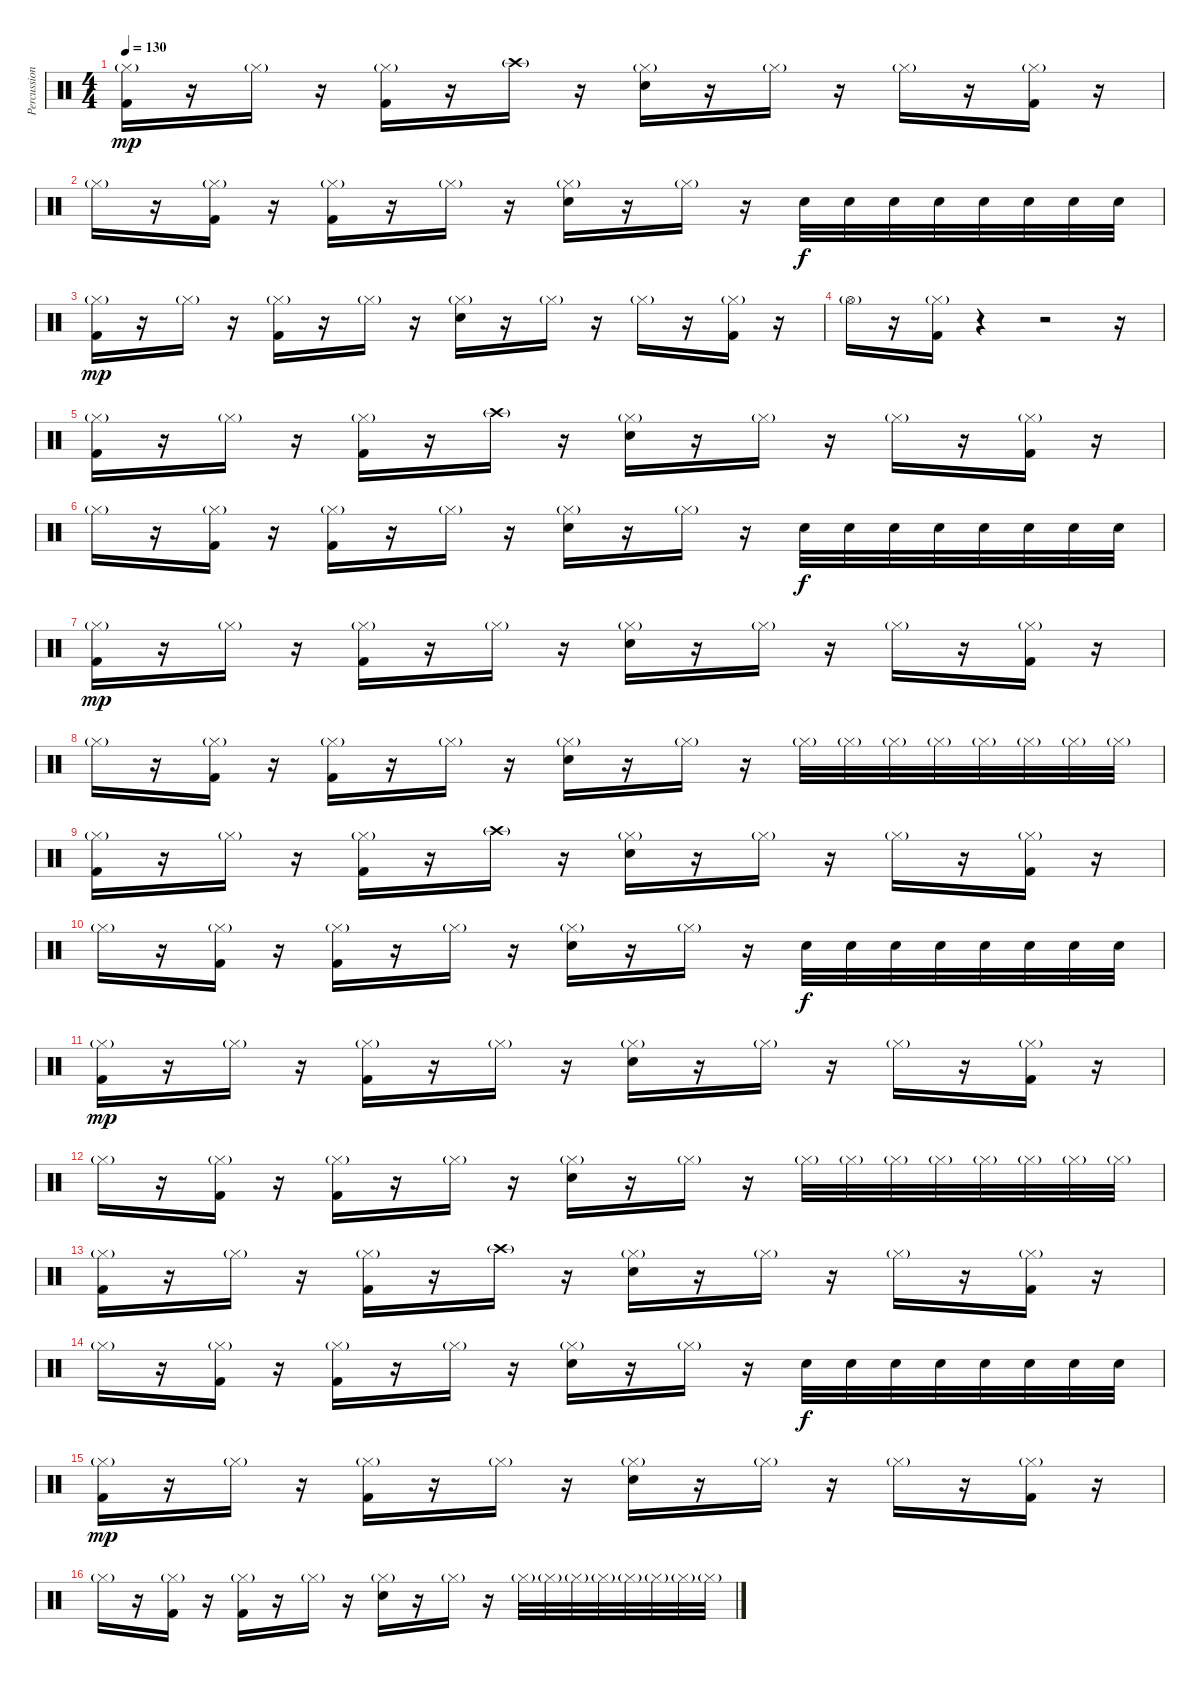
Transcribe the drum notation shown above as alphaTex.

\track ("Percussion" "Percussion") {instrument percussion}
\staff {score}
\articulation defaults
\ts (4 4)
\tempo 130
\clef neutral
\ks c
("Hi-Hat (closed)"{g} "Kick (hit) 2").16{dy mp} r.16 "Hi-Hat (closed)"{g}.16 r.16 ("Hi-Hat (closed)"{g} "Kick (hit) 2").16 r.16 "Crash high (hit)"{g}.16 r.16 ("Hi-Hat (closed)"{g} "Snare (hit) 2").16 r.16 "Hi-Hat (closed)"{g}.16 r.16 "Hi-Hat (closed)"{g}.16 r.16 ("Hi-Hat (closed)"{g} "Kick (hit) 2").16 r.16 |
"Hi-Hat (closed)"{g}.16 r.16 ("Hi-Hat (closed)"{g} "Kick (hit) 2").16 r.16 ("Hi-Hat (closed)"{g} "Kick (hit) 2").16 r.16 "Hi-Hat (closed)"{g}.16 r.16 ("Hi-Hat (closed)"{g} "Snare (hit) 2").16 r.16 "Hi-Hat (closed)"{g}.16 r.16 "Snare (hit) 2".32{dy f} "Snare (hit) 2".32 "Snare (hit) 2".32 "Snare (hit) 2".32 "Snare (hit) 2".32 "Snare (hit) 2".32 "Snare (hit) 2".32 "Snare (hit) 2".32 |
("Hi-Hat (closed)"{g} "Kick (hit) 2").16{dy mp} r.16 "Hi-Hat (closed)"{g}.16 r.16 ("Hi-Hat (closed)"{g} "Kick (hit) 2").16 r.16 "Hi-Hat (closed)"{g}.16 r.16 ("Hi-Hat (closed)"{g} "Snare (hit) 2").16 r.16 "Hi-Hat (closed)"{g}.16 r.16 "Hi-Hat (closed)"{g}.16 r.16 ("Hi-Hat (closed)"{g} "Kick (hit) 2").16 r.16 |
"Hi-Hat (open)"{g}.16 r.16 ("Hi-Hat (closed)"{g} "Kick (hit) 2").16 r.4 r.2 r.16 |
("Hi-Hat (closed)"{g} "Kick (hit) 2").16 r.16 "Hi-Hat (closed)"{g}.16 r.16 ("Hi-Hat (closed)"{g} "Kick (hit) 2").16 r.16 "Crash high (hit)"{g}.16 r.16 ("Hi-Hat (closed)"{g} "Snare (hit) 2").16 r.16 "Hi-Hat (closed)"{g}.16 r.16 "Hi-Hat (closed)"{g}.16 r.16 ("Hi-Hat (closed)"{g} "Kick (hit) 2").16 r.16 |
"Hi-Hat (closed)"{g}.16 r.16 ("Hi-Hat (closed)"{g} "Kick (hit) 2").16 r.16 ("Hi-Hat (closed)"{g} "Kick (hit) 2").16 r.16 "Hi-Hat (closed)"{g}.16 r.16 ("Hi-Hat (closed)"{g} "Snare (hit) 2").16 r.16 "Hi-Hat (closed)"{g}.16 r.16 "Snare (hit) 2".32{dy f} "Snare (hit) 2".32 "Snare (hit) 2".32 "Snare (hit) 2".32 "Snare (hit) 2".32 "Snare (hit) 2".32 "Snare (hit) 2".32 "Snare (hit) 2".32 |
("Hi-Hat (closed)"{g} "Kick (hit) 2").16{dy mp} r.16 "Hi-Hat (closed)"{g}.16 r.16 ("Hi-Hat (closed)"{g} "Kick (hit) 2").16 r.16 "Hi-Hat (closed)"{g}.16 r.16 ("Hi-Hat (closed)"{g} "Snare (hit) 2").16 r.16 "Hi-Hat (closed)"{g}.16 r.16 "Hi-Hat (closed)"{g}.16 r.16 ("Hi-Hat (closed)"{g} "Kick (hit) 2").16 r.16 |
"Hi-Hat (closed)"{g}.16 r.16 ("Hi-Hat (closed)"{g} "Kick (hit) 2").16 r.16 ("Hi-Hat (closed)"{g} "Kick (hit) 2").16 r.16 "Hi-Hat (closed)"{g}.16 r.16 ("Hi-Hat (closed)"{g} "Snare (hit) 2").16 r.16 "Hi-Hat (closed)"{g}.16 r.16 "Hi-Hat (closed)"{g}.32 "Hi-Hat (closed)"{g}.32 "Hi-Hat (closed)"{g}.32 "Hi-Hat (closed)"{g}.32 "Hi-Hat (closed)"{g}.32 "Hi-Hat (closed)"{g}.32 "Hi-Hat (closed)"{g}.32 "Hi-Hat (closed)"{g}.32 |
("Hi-Hat (closed)"{g} "Kick (hit) 2").16 r.16 "Hi-Hat (closed)"{g}.16 r.16 ("Hi-Hat (closed)"{g} "Kick (hit) 2").16 r.16 "Crash high (hit)"{g}.16 r.16 ("Hi-Hat (closed)"{g} "Snare (hit) 2").16 r.16 "Hi-Hat (closed)"{g}.16 r.16 "Hi-Hat (closed)"{g}.16 r.16 ("Hi-Hat (closed)"{g} "Kick (hit) 2").16 r.16 |
"Hi-Hat (closed)"{g}.16 r.16 ("Hi-Hat (closed)"{g} "Kick (hit) 2").16 r.16 ("Hi-Hat (closed)"{g} "Kick (hit) 2").16 r.16 "Hi-Hat (closed)"{g}.16 r.16 ("Hi-Hat (closed)"{g} "Snare (hit) 2").16 r.16 "Hi-Hat (closed)"{g}.16 r.16 "Snare (hit) 2".32{dy f} "Snare (hit) 2".32 "Snare (hit) 2".32 "Snare (hit) 2".32 "Snare (hit) 2".32 "Snare (hit) 2".32 "Snare (hit) 2".32 "Snare (hit) 2".32 |
("Hi-Hat (closed)"{g} "Kick (hit) 2").16{dy mp} r.16 "Hi-Hat (closed)"{g}.16 r.16 ("Hi-Hat (closed)"{g} "Kick (hit) 2").16 r.16 "Hi-Hat (closed)"{g}.16 r.16 ("Hi-Hat (closed)"{g} "Snare (hit) 2").16 r.16 "Hi-Hat (closed)"{g}.16 r.16 "Hi-Hat (closed)"{g}.16 r.16 ("Hi-Hat (closed)"{g} "Kick (hit) 2").16 r.16 |
"Hi-Hat (closed)"{g}.16 r.16 ("Hi-Hat (closed)"{g} "Kick (hit) 2").16 r.16 ("Hi-Hat (closed)"{g} "Kick (hit) 2").16 r.16 "Hi-Hat (closed)"{g}.16 r.16 ("Hi-Hat (closed)"{g} "Snare (hit) 2").16 r.16 "Hi-Hat (closed)"{g}.16 r.16 "Hi-Hat (closed)"{g}.32 "Hi-Hat (closed)"{g}.32 "Hi-Hat (closed)"{g}.32 "Hi-Hat (closed)"{g}.32 "Hi-Hat (closed)"{g}.32 "Hi-Hat (closed)"{g}.32 "Hi-Hat (closed)"{g}.32 "Hi-Hat (closed)"{g}.32 |
("Hi-Hat (closed)"{g} "Kick (hit) 2").16 r.16 "Hi-Hat (closed)"{g}.16 r.16 ("Hi-Hat (closed)"{g} "Kick (hit) 2").16 r.16 "Crash high (hit)"{g}.16 r.16 ("Hi-Hat (closed)"{g} "Snare (hit) 2").16 r.16 "Hi-Hat (closed)"{g}.16 r.16 "Hi-Hat (closed)"{g}.16 r.16 ("Hi-Hat (closed)"{g} "Kick (hit) 2").16 r.16 |
"Hi-Hat (closed)"{g}.16 r.16 ("Hi-Hat (closed)"{g} "Kick (hit) 2").16 r.16 ("Hi-Hat (closed)"{g} "Kick (hit) 2").16 r.16 "Hi-Hat (closed)"{g}.16 r.16 ("Hi-Hat (closed)"{g} "Snare (hit) 2").16 r.16 "Hi-Hat (closed)"{g}.16 r.16 "Snare (hit) 2".32{dy f} "Snare (hit) 2".32 "Snare (hit) 2".32 "Snare (hit) 2".32 "Snare (hit) 2".32 "Snare (hit) 2".32 "Snare (hit) 2".32 "Snare (hit) 2".32 |
("Hi-Hat (closed)"{g} "Kick (hit) 2").16{dy mp} r.16 "Hi-Hat (closed)"{g}.16 r.16 ("Hi-Hat (closed)"{g} "Kick (hit) 2").16 r.16 "Hi-Hat (closed)"{g}.16 r.16 ("Hi-Hat (closed)"{g} "Snare (hit) 2").16 r.16 "Hi-Hat (closed)"{g}.16 r.16 "Hi-Hat (closed)"{g}.16 r.16 ("Hi-Hat (closed)"{g} "Kick (hit) 2").16 r.16 |
"Hi-Hat (closed)"{g}.16 r.16 ("Hi-Hat (closed)"{g} "Kick (hit) 2").16 r.16 ("Hi-Hat (closed)"{g} "Kick (hit) 2").16 r.16 "Hi-Hat (closed)"{g}.16 r.16 ("Hi-Hat (closed)"{g} "Snare (hit) 2").16 r.16 "Hi-Hat (closed)"{g}.16 r.16 "Hi-Hat (closed)"{g}.32 "Hi-Hat (closed)"{g}.32 "Hi-Hat (closed)"{g}.32 "Hi-Hat (closed)"{g}.32 "Hi-Hat (closed)"{g}.32 "Hi-Hat (closed)"{g}.32 "Hi-Hat (closed)"{g}.32 "Hi-Hat (closed)"{g}.32
